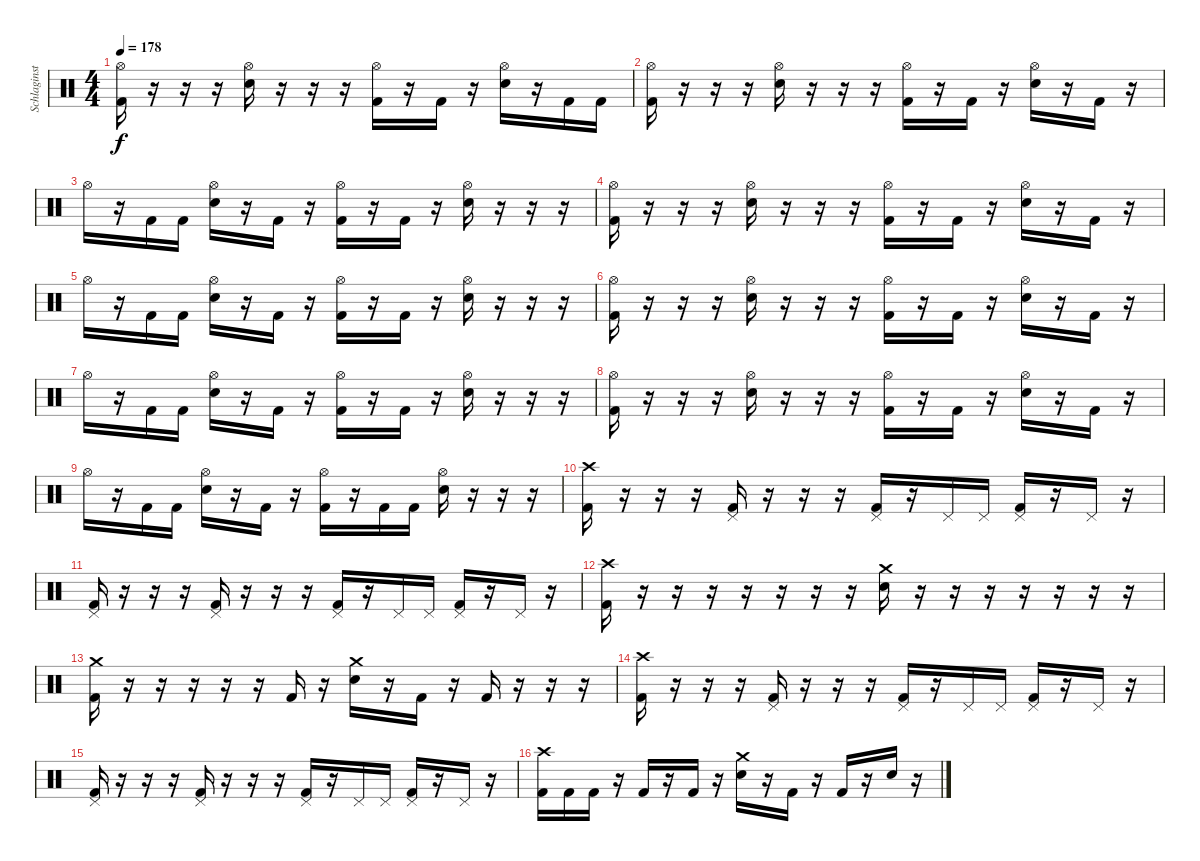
\track ("Schlaginstrumente - Auswahl" "Schlaginst") {instrument percussion}
\staff {score}
\articulation defaults
\ts (4 4)
\tempo 178
\clef neutral
\ks c
("Hi-Hat (open)" "Kick (hit) 2").16{dy f} r.16 r.16 r.16 ("Hi-Hat (open)" "Snare (hit) 2").16 r.16 r.16 r.16 ("Hi-Hat (open)" "Kick (hit) 2").16 r.16 "Kick (hit) 2".16 r.16 ("Hi-Hat (open)" "Snare (hit) 2").16 r.16 "Kick (hit) 2".16 "Kick (hit) 2".16 |
("Hi-Hat (open)" "Kick (hit) 2").16 r.16 r.16 r.16 ("Hi-Hat (open)" "Snare (hit) 2").16 r.16 r.16 r.16 ("Hi-Hat (open)" "Kick (hit) 2").16 r.16 "Kick (hit) 2".16 r.16 ("Hi-Hat (open)" "Snare (hit) 2").16 r.16 "Kick (hit) 2".16 r.16 |
"Hi-Hat (open)".16 r.16 "Kick (hit) 2".16 "Kick (hit) 2".16 ("Hi-Hat (open)" "Snare (hit) 2").16 r.16 "Kick (hit) 2".16 r.16 ("Hi-Hat (open)" "Kick (hit) 2").16 r.16 "Kick (hit) 2".16 r.16 ("Hi-Hat (open)" "Snare (hit) 2").16 r.16 r.16 r.16 |
("Hi-Hat (open)" "Kick (hit) 2").16 r.16 r.16 r.16 ("Hi-Hat (open)" "Snare (hit) 2").16 r.16 r.16 r.16 ("Hi-Hat (open)" "Kick (hit) 2").16 r.16 "Kick (hit) 2".16 r.16 ("Hi-Hat (open)" "Snare (hit) 2").16 r.16 "Kick (hit) 2".16 r.16 |
"Hi-Hat (open)".16 r.16 "Kick (hit) 2".16 "Kick (hit) 2".16 ("Hi-Hat (open)" "Snare (hit) 2").16 r.16 "Kick (hit) 2".16 r.16 ("Hi-Hat (open)" "Kick (hit) 2").16 r.16 "Kick (hit) 2".16 r.16 ("Hi-Hat (open)" "Snare (hit) 2").16 r.16 r.16 r.16 |
("Hi-Hat (open)" "Kick (hit) 2").16 r.16 r.16 r.16 ("Hi-Hat (open)" "Snare (hit) 2").16 r.16 r.16 r.16 ("Hi-Hat (open)" "Kick (hit) 2").16 r.16 "Kick (hit) 2".16 r.16 ("Hi-Hat (open)" "Snare (hit) 2").16 r.16 "Kick (hit) 2".16 r.16 |
"Hi-Hat (open)".16 r.16 "Kick (hit) 2".16 "Kick (hit) 2".16 ("Hi-Hat (open)" "Snare (hit) 2").16 r.16 "Kick (hit) 2".16 r.16 ("Hi-Hat (open)" "Kick (hit) 2").16 r.16 "Kick (hit) 2".16 r.16 ("Hi-Hat (open)" "Snare (hit) 2").16 r.16 r.16 r.16 |
("Hi-Hat (open)" "Kick (hit) 2").16 r.16 r.16 r.16 ("Hi-Hat (open)" "Snare (hit) 2").16 r.16 r.16 r.16 ("Hi-Hat (open)" "Kick (hit) 2").16 r.16 "Kick (hit) 2".16 r.16 ("Hi-Hat (open)" "Snare (hit) 2").16 r.16 "Kick (hit) 2".16 r.16 |
"Hi-Hat (open)".16 r.16 "Kick (hit) 2".16 "Kick (hit) 2".16 ("Hi-Hat (open)" "Snare (hit) 2").16 r.16 "Kick (hit) 2".16 r.16 ("Hi-Hat (open)" "Kick (hit) 2").16 r.16 "Kick (hit) 2".16 "Kick (hit) 2".16 ("Hi-Hat (open)" "Snare (hit) 2").16 r.16 r.16 r.16 |
("Crash high (hit)" "Kick (hit) 2").16 r.16 r.16 r.16 ("Pedal Hi-Hat (hit)" "Kick (hit) 2").16 r.16 r.16 r.16 ("Pedal Hi-Hat (hit)" "Kick (hit) 2").16 r.16 "Pedal Hi-Hat (hit)".16 "Pedal Hi-Hat (hit)".16 ("Pedal Hi-Hat (hit)" "Kick (hit) 2").16 r.16 "Pedal Hi-Hat (hit)".16 r.16 |
("Pedal Hi-Hat (hit)" "Kick (hit) 2").16 r.16 r.16 r.16 ("Pedal Hi-Hat (hit)" "Kick (hit) 2").16 r.16 r.16 r.16 ("Pedal Hi-Hat (hit)" "Kick (hit) 2").16 r.16 "Pedal Hi-Hat (hit)".16 "Pedal Hi-Hat (hit)".16 ("Pedal Hi-Hat (hit)" "Kick (hit) 2").16 r.16 "Pedal Hi-Hat (hit)".16 r.16 |
("Crash high (hit)" "Kick (hit) 2").16 r.16 r.16 r.16 r.16 r.16 r.16 r.16 ("Crash medium (hit)" "Snare (hit) 2").16 r.16 r.16 r.16 r.16 r.16 r.16 r.16 |
("Crash medium (hit)" "Kick (hit) 2").16 r.16 r.16 r.16 r.16 r.16 "Kick (hit) 2".16 r.16 ("Crash medium (hit)" "Snare (hit) 2").16 r.16 "Kick (hit) 2".16 r.16 "Kick (hit) 2".16 r.16 r.16 r.16 |
("Crash high (hit)" "Kick (hit) 2").16 r.16 r.16 r.16 ("Pedal Hi-Hat (hit)" "Kick (hit) 2").16 r.16 r.16 r.16 ("Pedal Hi-Hat (hit)" "Kick (hit) 2").16 r.16 "Pedal Hi-Hat (hit)".16 "Pedal Hi-Hat (hit)".16 ("Pedal Hi-Hat (hit)" "Kick (hit) 2").16 r.16 "Pedal Hi-Hat (hit)".16 r.16 |
("Pedal Hi-Hat (hit)" "Kick (hit) 2").16 r.16 r.16 r.16 ("Pedal Hi-Hat (hit)" "Kick (hit) 2").16 r.16 r.16 r.16 ("Pedal Hi-Hat (hit)" "Kick (hit) 2").16 r.16 "Pedal Hi-Hat (hit)".16 "Pedal Hi-Hat (hit)".16 ("Pedal Hi-Hat (hit)" "Kick (hit) 2").16 r.16 "Pedal Hi-Hat (hit)".16 r.16 |
("Crash high (hit)" "Kick (hit) 2").16 "Kick (hit) 2".16 "Kick (hit) 2".16 r.16 "Kick (hit) 2".16 r.16 "Kick (hit) 2".16 r.16 ("Crash medium (hit)" "Snare (hit) 2").16 r.16 "Kick (hit) 2".16 r.16 "Kick (hit) 2".16 r.16 "Snare (hit) 2".16 r.16
